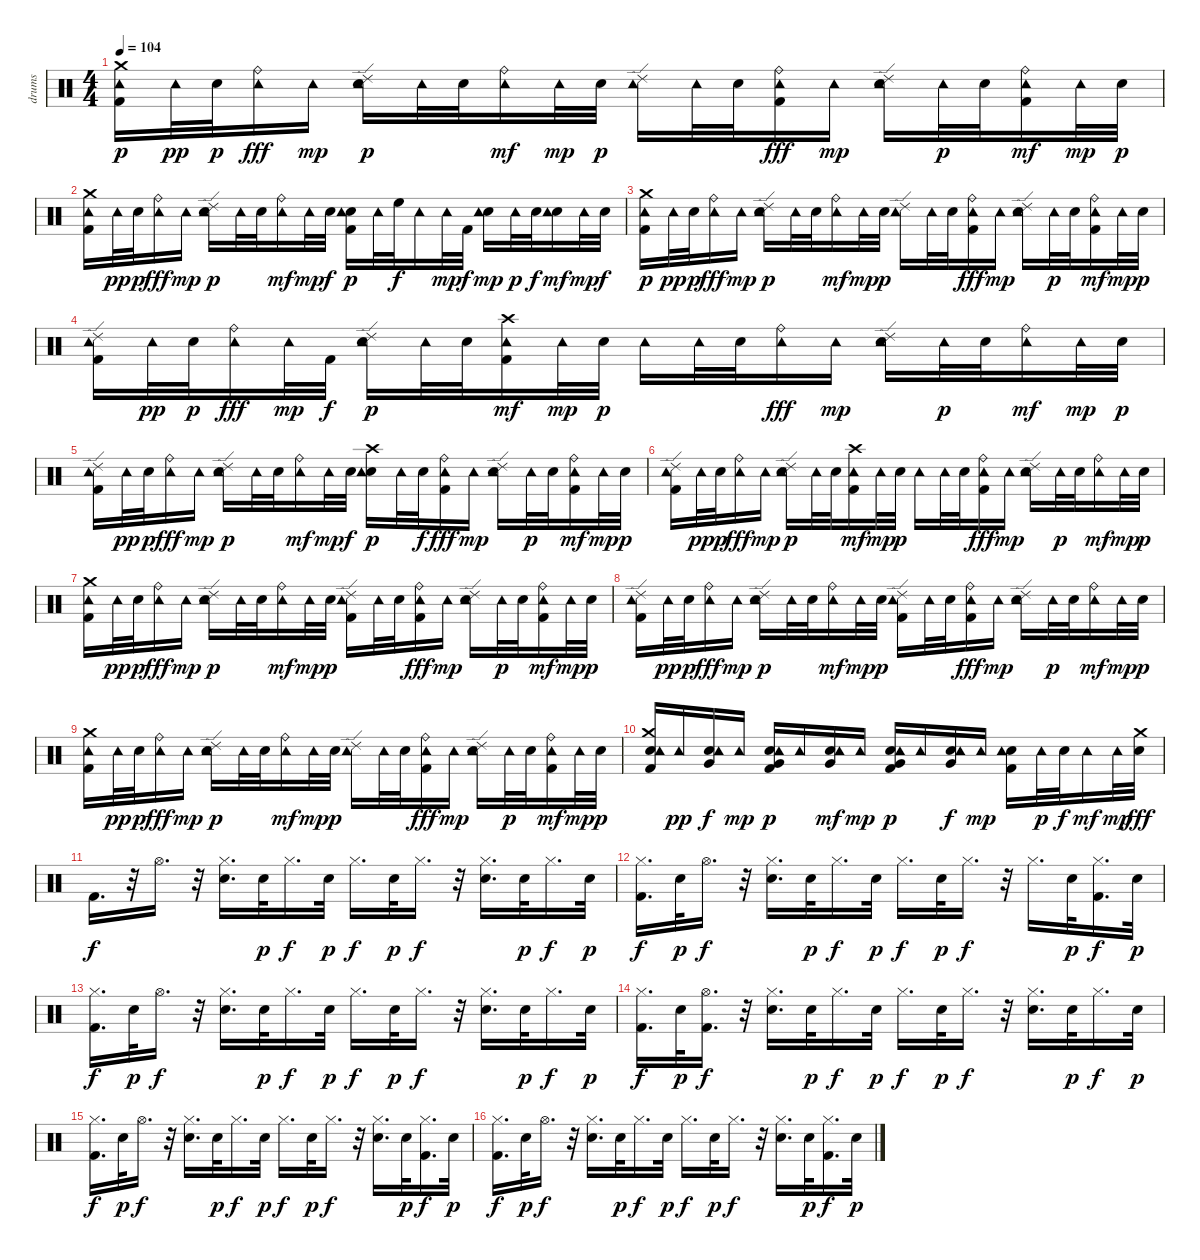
\track ("drums" "drums") {instrument percussion}
\staff {score}
\articulation defaults
\ts (4 4)
\tempo 104
\clef neutral
\ks c
("Kick (hit) 2" "Crash medium (hit)" "Tambourine (hit)").16{dy p} "Tambourine (hit)".32{dy pp} "Electric Snare (hit)".32{dy p} ("Ride (bell)" "Tambourine (hit)").16{dy fff} "Tambourine (hit)".16{dy mp} ("Electric Snare (hit)" "Ride (edge) 2" "Tambourine (hit)").16{dy p} "Tambourine (hit)".32 "Electric Snare (hit)".32 ("Ride (bell)" "Tambourine (hit)").16{dy mf} "Tambourine (hit)".32{dy mp} "Electric Snare (hit)".32{dy p} ("Ride (edge) 2" "Tambourine (hit)").16 "Tambourine (hit)".32 "Electric Snare (hit)".32 ("Kick (hit) 2" "Ride (bell)" "Tambourine (hit)").16{dy fff} "Tambourine (hit)".16{dy mp} ("Electric Snare (hit)" "Ride (edge) 2" "Tambourine (hit)").16 "Tambourine (hit)".32{dy p} "Electric Snare (hit)".32 ("Kick (hit) 2" "Ride (bell)" "Tambourine (hit)").16{dy mf} "Tambourine (hit)".32{dy mp} "Electric Snare (hit)".32{dy p} |
("Kick (hit) 2" "Crash medium (hit)" "Tambourine (hit)").16 "Tambourine (hit)".32{dy pp} "Electric Snare (hit)".32{dy p} ("Ride (bell)" "Tambourine (hit)").16{dy fff} "Tambourine (hit)".16{dy mp} ("Electric Snare (hit)" "Ride (edge) 2" "Tambourine (hit)").16{dy p} "Tambourine (hit)".32 "Electric Snare (hit)".32 ("Ride (bell)" "Tambourine (hit)").16{dy mf} "Tambourine (hit)".32{dy mp} "Electric Snare (hit)".32{dy f} ("Kick (hit) 2" "Electric Snare (hit)" "Tambourine (hit)").16{dy p} "Tambourine (hit)".32 "High Floor Tom (hit)".32{dy f} "Tambourine (hit)".16 "Tambourine (hit)".32{dy mp} "Kick (hit) 2".32{dy f} ("Electric Snare (hit)" "Tambourine (hit)").16{dy mp} "Tambourine (hit)".32{dy p} "Electric Snare (hit)".32{dy f} ("Electric Snare (hit)" "Tambourine (hit)").16{dy mf} "Tambourine (hit)".32{dy mp} "Electric Snare (hit)".32{dy f} |
("Kick (hit) 2" "Crash medium (hit)" "Tambourine (hit)").16{dy p} "Tambourine (hit)".32{dy pp} "Electric Snare (hit)".32{dy p} ("Ride (bell)" "Tambourine (hit)").16{dy fff} "Tambourine (hit)".16{dy mp} ("Electric Snare (hit)" "Ride (edge) 2" "Tambourine (hit)").16{dy p} "Tambourine (hit)".32 "Electric Snare (hit)".32 ("Ride (bell)" "Tambourine (hit)").16{dy mf} "Tambourine (hit)".32{dy mp} "Electric Snare (hit)".32{dy p} ("Ride (edge) 2" "Tambourine (hit)").16 "Tambourine (hit)".32 "Electric Snare (hit)".32 ("Kick (hit) 2" "Ride (bell)" "Tambourine (hit)").16{dy fff} "Tambourine (hit)".16{dy mp} ("Electric Snare (hit)" "Ride (edge) 2" "Tambourine (hit)").16 "Tambourine (hit)".32{dy p} "Electric Snare (hit)".32 ("Kick (hit) 2" "Ride (bell)" "Tambourine (hit)").16{dy mf} "Tambourine (hit)".32{dy mp} "Electric Snare (hit)".32{dy p} |
("Kick (hit) 2" "Ride (edge) 2" "Tambourine (hit)").16 "Tambourine (hit)".32{dy pp} "Electric Snare (hit)".32{dy p} ("Ride (bell)" "Tambourine (hit)").16{dy fff} "Tambourine (hit)".32{dy mp} "Kick (hit) 2".32{dy f} ("Electric Snare (hit)" "Ride (edge) 2" "Tambourine (hit)").16{dy p} "Tambourine (hit)".32 "Electric Snare (hit)".32 ("Kick (hit) 2" "Crash high (hit)" "Tambourine (hit)").16{dy mf} "Tambourine (hit)".32{dy mp} "Electric Snare (hit)".32{dy p} "Tambourine (hit)".16 "Tambourine (hit)".32 "Electric Snare (hit)".32 ("Ride (bell)" "Tambourine (hit)").16{dy fff} "Tambourine (hit)".16{dy mp} ("Electric Snare (hit)" "Ride (edge) 2" "Tambourine (hit)").16 "Tambourine (hit)".32{dy p} "Electric Snare (hit)".32 ("Ride (bell)" "Tambourine (hit)").16{dy mf} "Tambourine (hit)".32{dy mp} "Electric Snare (hit)".32{dy p} |
("Kick (hit) 2" "Ride (edge) 2" "Tambourine (hit)").16 "Tambourine (hit)".32{dy pp} "Electric Snare (hit)".32{dy p} ("Ride (bell)" "Tambourine (hit)").16{dy fff} "Tambourine (hit)".16{dy mp} ("Electric Snare (hit)" "Ride (edge) 2" "Tambourine (hit)").16{dy p} "Tambourine (hit)".32 "Electric Snare (hit)".32 ("Ride (bell)" "Tambourine (hit)").16{dy mf} "Tambourine (hit)".32{dy mp} "Electric Snare (hit)".32{dy f} ("Electric Snare (hit)" "Crash high (hit)" "Tambourine (hit)").16{dy p} "Tambourine (hit)".32 "Electric Snare (hit)".32{dy f} ("Kick (hit) 2" "Ride (bell)" "Tambourine (hit)").16{dy fff} "Tambourine (hit)".16{dy mp} ("Electric Snare (hit)" "Ride (edge) 2" "Tambourine (hit)").16 "Tambourine (hit)".32{dy p} "Electric Snare (hit)".32 ("Kick (hit) 2" "Ride (bell)" "Tambourine (hit)").16{dy mf} "Tambourine (hit)".32{dy mp} "Electric Snare (hit)".32{dy p} |
("Kick (hit) 2" "Ride (edge) 2" "Tambourine (hit)").16 "Tambourine (hit)".32{dy pp} "Electric Snare (hit)".32{dy p} ("Ride (bell)" "Tambourine (hit)").16{dy fff} "Tambourine (hit)".16{dy mp} ("Electric Snare (hit)" "Ride (edge) 2" "Tambourine (hit)").16{dy p} "Tambourine (hit)".32 "Electric Snare (hit)".32 ("Kick (hit) 2" "Crash high (hit)" "Tambourine (hit)").16{dy mf} "Tambourine (hit)".32{dy mp} "Electric Snare (hit)".32{dy p} "Tambourine (hit)".16 "Tambourine (hit)".32 "Electric Snare (hit)".32 ("Kick (hit) 2" "Ride (bell)" "Tambourine (hit)").16{dy fff} "Tambourine (hit)".16{dy mp} ("Electric Snare (hit)" "Ride (edge) 2" "Tambourine (hit)").16 "Tambourine (hit)".32{dy p} "Electric Snare (hit)".32 ("Ride (bell)" "Tambourine (hit)").16{dy mf} "Tambourine (hit)".32{dy mp} "Electric Snare (hit)".32{dy p} |
("Kick (hit) 2" "Crash medium (hit)" "Tambourine (hit)").16 "Tambourine (hit)".32{dy pp} "Electric Snare (hit)".32{dy p} ("Ride (bell)" "Tambourine (hit)").16{dy fff} "Tambourine (hit)".16{dy mp} ("Electric Snare (hit)" "Ride (edge) 2" "Tambourine (hit)").16{dy p} "Tambourine (hit)".32 "Electric Snare (hit)".32 ("Ride (bell)" "Tambourine (hit)").16{dy mf} "Tambourine (hit)".32{dy mp} "Electric Snare (hit)".32{dy p} ("Kick (hit) 2" "Ride (edge) 2" "Tambourine (hit)").16 "Tambourine (hit)".32 "Electric Snare (hit)".32 ("Kick (hit) 2" "Ride (bell)" "Tambourine (hit)").16{dy fff} "Tambourine (hit)".16{dy mp} ("Electric Snare (hit)" "Ride (edge) 2" "Tambourine (hit)").16 "Tambourine (hit)".32{dy p} "Electric Snare (hit)".32 ("Kick (hit) 2" "Ride (bell)" "Tambourine (hit)").16{dy mf} "Tambourine (hit)".32{dy mp} "Electric Snare (hit)".32{dy p} |
("Kick (hit) 2" "Ride (edge) 2" "Tambourine (hit)").16 "Tambourine (hit)".32{dy pp} "Electric Snare (hit)".32{dy p} ("Ride (bell)" "Tambourine (hit)").16{dy fff} "Tambourine (hit)".16{dy mp} ("Electric Snare (hit)" "Ride (edge) 2" "Tambourine (hit)").16{dy p} "Tambourine (hit)".32 "Electric Snare (hit)".32 ("Ride (bell)" "Tambourine (hit)").16{dy mf} "Tambourine (hit)".32{dy mp} "Electric Snare (hit)".32{dy p} ("Kick (hit) 2" "Ride (edge) 2" "Tambourine (hit)").16 "Tambourine (hit)".32 "Electric Snare (hit)".32 ("Kick (hit) 2" "Ride (bell)" "Tambourine (hit)").16{dy fff} "Tambourine (hit)".16{dy mp} ("Electric Snare (hit)" "Ride (edge) 2" "Tambourine (hit)").16 "Tambourine (hit)".32{dy p} "Electric Snare (hit)".32 ("Ride (bell)" "Tambourine (hit)").16{dy mf} "Tambourine (hit)".32{dy mp} "Electric Snare (hit)".32{dy p} |
("Kick (hit) 2" "Crash medium (hit)" "Tambourine (hit)").16 "Tambourine (hit)".32{dy pp} "Electric Snare (hit)".32{dy p} ("Ride (bell)" "Tambourine (hit)").16{dy fff} "Tambourine (hit)".16{dy mp} ("Electric Snare (hit)" "Ride (edge) 2" "Tambourine (hit)").16{dy p} "Tambourine (hit)".32 "Electric Snare (hit)".32 ("Ride (bell)" "Tambourine (hit)").16{dy mf} "Tambourine (hit)".32{dy mp} "Electric Snare (hit)".32{dy p} ("Ride (edge) 2" "Tambourine (hit)").16 "Tambourine (hit)".32 "Electric Snare (hit)".32 ("Kick (hit) 2" "Ride (bell)" "Tambourine (hit)").16{dy fff} "Tambourine (hit)".16{dy mp} ("Electric Snare (hit)" "Ride (edge) 2" "Tambourine (hit)").16 "Tambourine (hit)".32{dy p} "Electric Snare (hit)".32 ("Kick (hit) 2" "Ride (bell)" "Tambourine (hit)").16{dy mf} "Tambourine (hit)".32{dy mp} "Electric Snare (hit)".32{dy p} |
("Kick (hit) 2" "Electric Snare (hit)" "Crash medium (hit)" "Tambourine (hit)").16 "Tambourine (hit)".16{dy pp} ("Electric Snare (hit)" "Very Low Tom (hit)" "Tambourine (hit)").16{dy f} "Tambourine (hit)".16{dy mp} ("Kick (hit) 2" "Very Low Tom (hit)" "Electric Snare (hit)" "Tambourine (hit)").16{dy p} "Tambourine (hit)".16 ("Very Low Tom (hit)" "Electric Snare (hit)" "Tambourine (hit)").16{dy mf} "Tambourine (hit)".16{dy mp} ("Kick (hit) 2" "Very Low Tom (hit)" "Electric Snare (hit)" "Tambourine (hit)").16{dy p} "Tambourine (hit)".16 ("Electric Snare (hit)" "Very Low Tom (hit)" "Tambourine (hit)").16{dy f} "Tambourine (hit)".16{dy mp} ("Kick (hit) 2" "Electric Snare (hit)" "Tambourine (hit)").16 "Tambourine (hit)".32{dy p} "Electric Snare (hit)".32{dy f} "Tambourine (hit)".16{dy mf} "Tambourine (hit)".32{dy mp} ("Electric Snare (hit)" "Crash medium (hit)").32{dy fff} |
"Kick (hit) 2".16{d dy f} r.32 "Hi-Hat (open)".16{d} r.32 ("Electric Snare (hit)" "Hi-Hat (closed)").16{d} "Electric Snare (hit)".32{dy p} "Hi-Hat (closed)".16{d dy f} "Electric Snare (hit)".32{dy p} "Hi-Hat (closed)".16{d dy f} "Electric Snare (hit)".32{dy p} "Hi-Hat (closed)".16{d dy f} r.32 ("Electric Snare (hit)" "Hi-Hat (closed)").16{d} "Electric Snare (hit)".32{dy p} "Hi-Hat (closed)".16{d dy f} "Electric Snare (hit)".32{dy p} |
("Kick (hit) 2" "Hi-Hat (closed)").16{d dy f} "Electric Snare (hit)".32{dy p} "Hi-Hat (open)".16{d dy f} r.32 ("Electric Snare (hit)" "Hi-Hat (closed)").16{d} "Electric Snare (hit)".32{dy p} "Hi-Hat (closed)".16{d dy f} "Electric Snare (hit)".32{dy p} "Hi-Hat (closed)".16{d dy f} "Electric Snare (hit)".32{dy p} "Hi-Hat (closed)".16{d dy f} r.32 "Hi-Hat (closed)".16{d} "Electric Snare (hit)".32{dy p} ("Kick (hit) 2" "Hi-Hat (closed)").16{d dy f} "Electric Snare (hit)".32{dy p} |
("Kick (hit) 2" "Hi-Hat (closed)").16{d dy f} "Electric Snare (hit)".32{dy p} "Hi-Hat (open)".16{d dy f} r.32 ("Electric Snare (hit)" "Hi-Hat (closed)").16{d} "Electric Snare (hit)".32{dy p} "Hi-Hat (closed)".16{d dy f} "Electric Snare (hit)".32{dy p} "Hi-Hat (closed)".16{d dy f} "Electric Snare (hit)".32{dy p} "Hi-Hat (closed)".16{d dy f} r.32 ("Electric Snare (hit)" "Hi-Hat (closed)").16{d} "Electric Snare (hit)".32{dy p} "Hi-Hat (closed)".16{d dy f} "Electric Snare (hit)".32{dy p} |
("Kick (hit) 2" "Hi-Hat (closed)").16{d dy f} "Electric Snare (hit)".32{dy p} ("Kick (hit) 2" "Hi-Hat (open)").16{d dy f} r.32 ("Electric Snare (hit)" "Hi-Hat (closed)").16{d} "Electric Snare (hit)".32{dy p} "Hi-Hat (closed)".16{d dy f} "Electric Snare (hit)".32{dy p} "Hi-Hat (closed)".16{d dy f} "Electric Snare (hit)".32{dy p} "Hi-Hat (closed)".16{d dy f} r.32 ("Electric Snare (hit)" "Hi-Hat (closed)").16{d} "Electric Snare (hit)".32{dy p} "Hi-Hat (closed)".16{d dy f} "Electric Snare (hit)".32{dy p} |
("Kick (hit) 2" "Hi-Hat (closed)").16{d dy f} "Electric Snare (hit)".32{dy p} "Hi-Hat (open)".16{d dy f} r.32 ("Electric Snare (hit)" "Hi-Hat (closed)").16{d} "Electric Snare (hit)".32{dy p} "Hi-Hat (closed)".16{d dy f} "Electric Snare (hit)".32{dy p} "Hi-Hat (closed)".16{d dy f} "Electric Snare (hit)".32{dy p} "Hi-Hat (closed)".16{d dy f} r.32 ("Electric Snare (hit)" "Hi-Hat (closed)").16{d} "Electric Snare (hit)".32{dy p} ("Kick (hit) 2" "Hi-Hat (closed)").16{d dy f} "Electric Snare (hit)".32{dy p} |
("Kick (hit) 2" "Hi-Hat (closed)").16{d dy f} "Electric Snare (hit)".32{dy p} "Hi-Hat (open)".16{d dy f} r.32 ("Electric Snare (hit)" "Hi-Hat (closed)").16{d} "Electric Snare (hit)".32{dy p} "Hi-Hat (closed)".16{d dy f} "Electric Snare (hit)".32{dy p} "Hi-Hat (closed)".16{d dy f} "Electric Snare (hit)".32{dy p} "Hi-Hat (closed)".16{d dy f} r.32 ("Electric Snare (hit)" "Hi-Hat (closed)").16{d} "Electric Snare (hit)".32{dy p} ("Kick (hit) 2" "Hi-Hat (closed)").16{d dy f} "Electric Snare (hit)".32{dy p}
